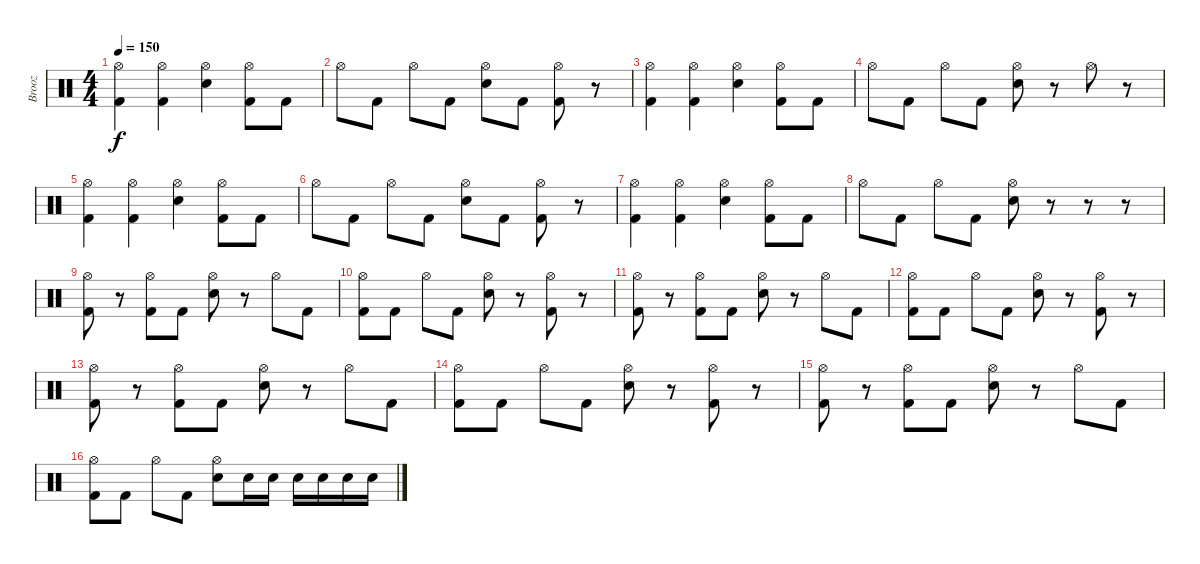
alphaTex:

\track ("Brooz" "Brooz") {instrument percussion}
\staff {score}
\articulation defaults
\ts (4 4)
\tempo 150
\clef neutral
\ks c
("Hi-Hat (open)" "Kick (hit) 2").4{dy f} ("Hi-Hat (open)" "Kick (hit) 2").4 ("Hi-Hat (open)" "Electric Snare (hit)").4 ("Hi-Hat (open)" "Kick (hit) 2").8 "Kick (hit) 2".8 |
"Hi-Hat (open)".8 "Kick (hit) 2".8 "Hi-Hat (open)".8 "Kick (hit) 2".8 ("Hi-Hat (open)" "Electric Snare (hit)").8 "Kick (hit) 2".8 ("Hi-Hat (open)" "Kick (hit) 2").8 r.8 |
("Hi-Hat (open)" "Kick (hit) 2").4 ("Hi-Hat (open)" "Kick (hit) 2").4 ("Hi-Hat (open)" "Electric Snare (hit)").4 ("Hi-Hat (open)" "Kick (hit) 2").8 "Kick (hit) 2".8 |
"Hi-Hat (open)".8 "Kick (hit) 2".8 "Hi-Hat (open)".8 "Kick (hit) 2".8 ("Hi-Hat (open)" "Electric Snare (hit)").8 r.8 "Hi-Hat (open)".8 r.8 |
("Hi-Hat (open)" "Kick (hit) 2").4 ("Hi-Hat (open)" "Kick (hit) 2").4 ("Hi-Hat (open)" "Electric Snare (hit)").4 ("Hi-Hat (open)" "Kick (hit) 2").8 "Kick (hit) 2".8 |
"Hi-Hat (open)".8 "Kick (hit) 2".8 "Hi-Hat (open)".8 "Kick (hit) 2".8 ("Hi-Hat (open)" "Electric Snare (hit)").8 "Kick (hit) 2".8 ("Hi-Hat (open)" "Kick (hit) 2").8 r.8 |
("Hi-Hat (open)" "Kick (hit) 2").4 ("Hi-Hat (open)" "Kick (hit) 2").4 ("Hi-Hat (open)" "Electric Snare (hit)").4 ("Hi-Hat (open)" "Kick (hit) 2").8 "Kick (hit) 2".8 |
"Hi-Hat (open)".8 "Kick (hit) 2".8 "Hi-Hat (open)".8 "Kick (hit) 2".8 ("Hi-Hat (open)" "Electric Snare (hit)").8 r.8 r.8 r.8 |
("Hi-Hat (open)" "Kick (hit) 2").8 r.8 ("Hi-Hat (open)" "Kick (hit) 2").8 "Kick (hit) 2".8 ("Hi-Hat (open)" "Electric Snare (hit)").8 r.8 "Hi-Hat (open)".8 "Kick (hit) 2".8 |
("Hi-Hat (open)" "Kick (hit) 2").8 "Kick (hit) 2".8 "Hi-Hat (open)".8 "Kick (hit) 2".8 ("Hi-Hat (open)" "Electric Snare (hit)").8 r.8 ("Hi-Hat (open)" "Kick (hit) 2").8 r.8 |
("Hi-Hat (open)" "Kick (hit) 2").8 r.8 ("Hi-Hat (open)" "Kick (hit) 2").8 "Kick (hit) 2".8 ("Hi-Hat (open)" "Electric Snare (hit)").8 r.8 "Hi-Hat (open)".8 "Kick (hit) 2".8 |
("Hi-Hat (open)" "Kick (hit) 2").8 "Kick (hit) 2".8 "Hi-Hat (open)".8 "Kick (hit) 2".8 ("Hi-Hat (open)" "Electric Snare (hit)").8 r.8 ("Hi-Hat (open)" "Kick (hit) 2").8 r.8 |
("Hi-Hat (open)" "Kick (hit) 2").8 r.8 ("Hi-Hat (open)" "Kick (hit) 2").8 "Kick (hit) 2".8 ("Hi-Hat (open)" "Electric Snare (hit)").8 r.8 "Hi-Hat (open)".8 "Kick (hit) 2".8 |
("Hi-Hat (open)" "Kick (hit) 2").8 "Kick (hit) 2".8 "Hi-Hat (open)".8 "Kick (hit) 2".8 ("Hi-Hat (open)" "Electric Snare (hit)").8 r.8 ("Hi-Hat (open)" "Kick (hit) 2").8 r.8 |
("Hi-Hat (open)" "Kick (hit) 2").8 r.8 ("Hi-Hat (open)" "Kick (hit) 2").8 "Kick (hit) 2".8 ("Hi-Hat (open)" "Electric Snare (hit)").8 r.8 "Hi-Hat (open)".8 "Kick (hit) 2".8 |
("Hi-Hat (open)" "Kick (hit) 2").8 "Kick (hit) 2".8 "Hi-Hat (open)".8 "Kick (hit) 2".8 ("Hi-Hat (open)" "Electric Snare (hit)").8 "Electric Snare (hit)".16 "Electric Snare (hit)".16 "Electric Snare (hit)".16 "Electric Snare (hit)".16 "Electric Snare (hit)".16 "Electric Snare (hit)".16
